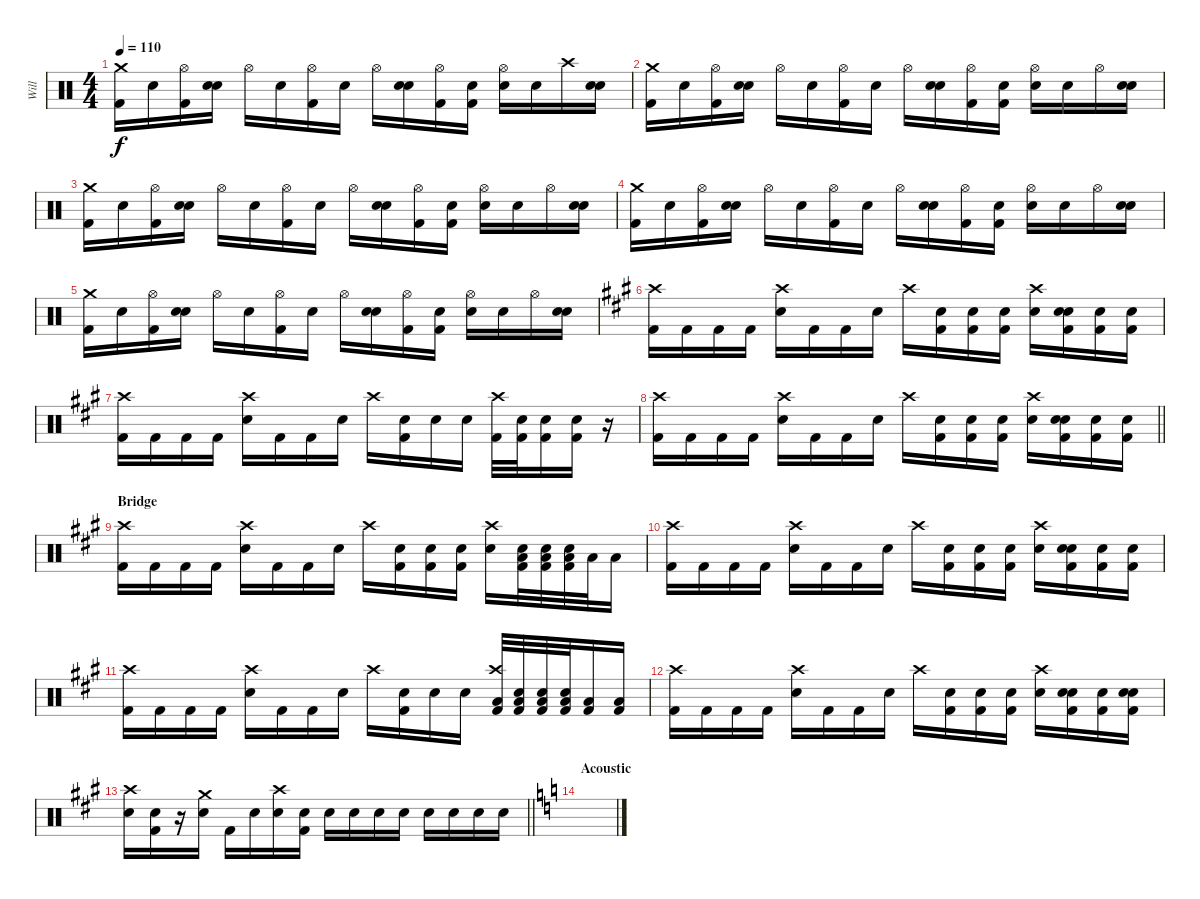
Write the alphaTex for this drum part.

\track ("Will" "Will") {instrument percussion}
\staff {score}
\articulation defaults
\ts (4 4)
\tempo 110
\clef neutral
\ks c
("Crash medium (hit)" "Kick (hit) 2").16{dy f} "Snare (hit)".16 ("Hi-Hat (open)" "Kick (hit) 2").16 ("Snare (hit)" "Electric Snare (hit)").16 "Hi-Hat (open)".16 "Snare (hit)".16 ("Hi-Hat (open)" "Kick (hit) 2").16 "Snare (hit)".16 "Hi-Hat (open)".16 ("Snare (hit)" "Electric Snare (hit)").16 ("Hi-Hat (open)" "Kick (hit) 2").16 ("Snare (hit)" "Kick (hit) 2").16 ("Hi-Hat (open)" "Electric Snare (hit)").16 "Snare (hit)".16 "Crash high (hit)".16 ("Snare (hit)" "Electric Snare (hit)").16 |
("Crash medium (hit)" "Kick (hit) 2").16 "Snare (hit)".16 ("Hi-Hat (open)" "Kick (hit) 2").16 ("Snare (hit)" "Electric Snare (hit)").16 "Hi-Hat (open)".16 "Snare (hit)".16 ("Hi-Hat (open)" "Kick (hit) 2").16 "Snare (hit)".16 "Hi-Hat (open)".16 ("Snare (hit)" "Electric Snare (hit)").16 ("Hi-Hat (open)" "Kick (hit) 2").16 ("Snare (hit)" "Kick (hit) 2").16 ("Hi-Hat (open)" "Electric Snare (hit)").16 "Snare (hit)".16 "Hi-Hat (open)".16 ("Snare (hit)" "Electric Snare (hit)").16 |
("Crash medium (hit)" "Kick (hit) 2").16 "Snare (hit)".16 ("Hi-Hat (open)" "Kick (hit) 2").16 ("Snare (hit)" "Electric Snare (hit)").16 "Hi-Hat (open)".16 "Snare (hit)".16 ("Hi-Hat (open)" "Kick (hit) 2").16 "Snare (hit)".16 "Hi-Hat (open)".16 ("Snare (hit)" "Electric Snare (hit)").16 ("Hi-Hat (open)" "Kick (hit) 2").16 ("Snare (hit)" "Kick (hit) 2").16 ("Hi-Hat (open)" "Electric Snare (hit)").16 "Snare (hit)".16 "Hi-Hat (open)".16 ("Snare (hit)" "Electric Snare (hit)").16 |
("Crash medium (hit)" "Kick (hit) 2").16 "Snare (hit)".16 ("Hi-Hat (open)" "Kick (hit) 2").16 ("Snare (hit)" "Electric Snare (hit)").16 "Hi-Hat (open)".16 "Snare (hit)".16 ("Hi-Hat (open)" "Kick (hit) 2").16 "Snare (hit)".16 "Hi-Hat (open)".16 ("Snare (hit)" "Electric Snare (hit)").16 ("Hi-Hat (open)" "Kick (hit) 2").16 ("Snare (hit)" "Kick (hit) 2").16 ("Hi-Hat (open)" "Electric Snare (hit)").16 "Snare (hit)".16 "Hi-Hat (open)".16 ("Snare (hit)" "Electric Snare (hit)").16 |
("Crash medium (hit)" "Kick (hit) 2").16 "Snare (hit)".16 ("Hi-Hat (open)" "Kick (hit) 2").16 ("Snare (hit)" "Electric Snare (hit)").16 "Hi-Hat (open)".16 "Snare (hit)".16 ("Hi-Hat (open)" "Kick (hit) 2").16 "Snare (hit)".16 "Hi-Hat (open)".16 ("Snare (hit)" "Electric Snare (hit)").16 ("Hi-Hat (open)" "Kick (hit) 2").16 ("Snare (hit)" "Kick (hit) 2").16 ("Hi-Hat (open)" "Electric Snare (hit)").16 "Snare (hit)".16 "Hi-Hat (open)".16 ("Snare (hit)" "Electric Snare (hit)").16 |
\ks a
("Crash high (hit)" "Kick (hit) 2").16 "Kick (hit) 2".16 "Kick (hit) 2".16 "Kick (hit) 2".16 ("Crash high (hit)" "Electric Snare (hit)").16 "Kick (hit) 2".16 "Kick (hit) 2".16 "Snare (hit)".16 "Crash high (hit)".16 ("Snare (hit)" "Kick (hit) 2").16 ("Snare (hit)" "Kick (hit) 2").16 ("Snare (hit)" "Kick (hit) 2").16 ("Crash high (hit)" "Electric Snare (hit)").16 ("Snare (hit)" "Electric Snare (hit)" "Kick (hit) 2").16 ("Snare (hit)" "Kick (hit) 2").16 ("Snare (hit)" "Kick (hit) 2").16 |
("Crash high (hit)" "Kick (hit) 2").16 "Kick (hit) 2".16 "Kick (hit) 2".16 "Kick (hit) 2".16 ("Crash high (hit)" "Electric Snare (hit)").16 "Kick (hit) 2".16 "Kick (hit) 2".16 "Snare (hit)".16 "Crash high (hit)".16 ("Snare (hit)" "Kick (hit) 2").16 "Snare (hit)".16 "Snare (hit)".16 ("Crash high (hit)" "Kick (hit) 2").32 ("Snare (hit)" "Kick (hit) 2").32 ("Snare (hit)" "Kick (hit) 2").16 ("Snare (hit)" "Kick (hit) 2").16 r.16 |
\barLineRight lightlight
("Crash high (hit)" "Kick (hit) 2").16 "Kick (hit) 2".16 "Kick (hit) 2".16 "Kick (hit) 2".16 ("Crash high (hit)" "Electric Snare (hit)").16 "Kick (hit) 2".16 "Kick (hit) 2".16 "Snare (hit)".16 "Crash high (hit)".16 ("Snare (hit)" "Kick (hit) 2").16 ("Snare (hit)" "Kick (hit) 2").16 ("Snare (hit)" "Kick (hit) 2").16 ("Crash high (hit)" "Electric Snare (hit)").16 ("Snare (hit)" "Electric Snare (hit)" "Kick (hit) 2").16 ("Snare (hit)" "Kick (hit) 2").16 ("Snare (hit)" "Kick (hit) 2").16 |
\section ("" "Bridge")
("Crash high (hit)" "Kick (hit) 2").16 "Kick (hit) 2".16 "Kick (hit) 2".16 "Kick (hit) 2".16 ("Crash high (hit)" "Electric Snare (hit)").16 "Kick (hit) 2".16 "Kick (hit) 2".16 "Snare (hit)".16 "Crash high (hit)".16 ("Snare (hit)" "Kick (hit) 2").16 ("Snare (hit)" "Kick (hit) 2").16 ("Snare (hit)" "Kick (hit) 2").16 ("Crash high (hit)" "Electric Snare (hit)").16 ("Snare (hit)" "Low Tom (hit)" "Kick (hit) 2").32 ("Snare (hit)" "Low Tom (hit)" "Kick (hit) 2").32 ("Snare (hit)" "Low Tom (hit)" "Kick (hit) 2").32 "Low Tom (hit)".32 "Low Tom (hit)".16 |
("Crash high (hit)" "Kick (hit) 2").16 "Kick (hit) 2".16 "Kick (hit) 2".16 "Kick (hit) 2".16 ("Crash high (hit)" "Electric Snare (hit)").16 "Kick (hit) 2".16 "Kick (hit) 2".16 "Snare (hit)".16 "Crash high (hit)".16 ("Snare (hit)" "Kick (hit) 2").16 ("Snare (hit)" "Kick (hit) 2").16 ("Snare (hit)" "Kick (hit) 2").16 ("Crash high (hit)" "Electric Snare (hit)").16 ("Snare (hit)" "Electric Snare (hit)" "Kick (hit) 2").16 ("Snare (hit)" "Kick (hit) 2").16 ("Snare (hit)" "Kick (hit) 2").16 |
("Crash high (hit)" "Kick (hit) 2").16 "Kick (hit) 2".16 "Kick (hit) 2".16 "Kick (hit) 2".16 ("Crash high (hit)" "Electric Snare (hit)").16 "Kick (hit) 2".16 "Kick (hit) 2".16 "Snare (hit)".16 "Crash high (hit)".16 ("Snare (hit)" "Kick (hit) 2").16 "Snare (hit)".16 "Snare (hit)".16 ("Crash high (hit)" "Low Tom (hit)" "Kick (hit) 2").32 ("Snare (hit)" "Low Tom (hit)" "Kick (hit) 2").32 ("Snare (hit)" "Low Tom (hit)" "Kick (hit) 2").32 ("Snare (hit)" "Low Tom (hit)" "Kick (hit) 2").32 ("Low Tom (hit)" "Kick (hit) 2").16 ("Low Tom (hit)" "Kick (hit) 2").16 |
("Crash high (hit)" "Kick (hit) 2").16 "Kick (hit) 2".16 "Kick (hit) 2".16 "Kick (hit) 2".16 ("Crash high (hit)" "Electric Snare (hit)").16 "Kick (hit) 2".16 "Kick (hit) 2".16 "Snare (hit)".16 "Crash high (hit)".16 ("Snare (hit)" "Kick (hit) 2").16 ("Snare (hit)" "Kick (hit) 2").16 ("Snare (hit)" "Kick (hit) 2").16 ("Crash high (hit)" "Electric Snare (hit)").16 ("Snare (hit)" "Electric Snare (hit)" "Kick (hit) 2").16 ("Snare (hit)" "Kick (hit) 2").16 ("Snare (hit)" "Electric Snare (hit)" "Kick (hit) 2").16 |
\barLineRight lightlight
("Crash high (hit)" "Electric Snare (hit)").16 ("Snare (hit)" "Kick (hit) 2").16 r.16 ("Crash medium (hit)" "Electric Snare (hit)").16 "Kick (hit) 2".16 "Snare (hit)".16 ("Crash high (hit)" "Electric Snare (hit)").16 ("Snare (hit)" "Kick (hit) 2").16 "Snare (hit)".16 "Electric Snare (hit)".16 "Electric Snare (hit)".16 "Electric Snare (hit)".16 "Electric Snare (hit)".16 "Electric Snare (hit)".16 "Electric Snare (hit)".16 "Electric Snare (hit)".16 |
\section ("" "Acoustic")
\ks c
